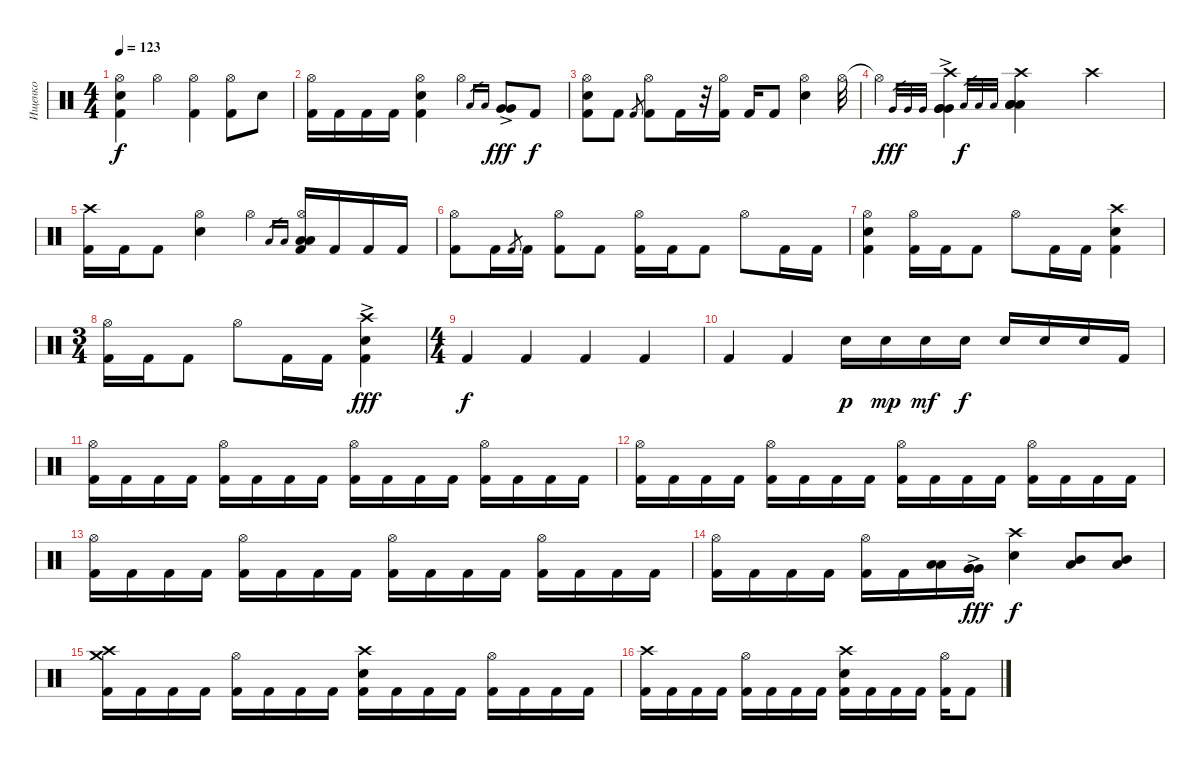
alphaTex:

\track ("Ищенко" "Ищенко") {instrument percussion}
\staff {score}
\articulation defaults
\ts (4 4)
\tempo 123
\clef neutral
\ks c
("Electric Snare (hit)" "Kick (hit) 2" "Hi-Hat (open)").4{dy f} "Hi-Hat (open)".4 ("Kick (hit) 2" "Hi-Hat (open)").4 ("Kick (hit) 2" "Hi-Hat (open)").8 "Electric Snare (hit)".8 |
("Hi-Hat (open)" "Kick (hit) 2").16 "Kick (hit) 2".16 "Kick (hit) 2".16 "Kick (hit) 2".16 ("Electric Snare (hit)" "Kick (hit) 2" "Hi-Hat (open)").4 "Hi-Hat (open)".4 "Low Tom (hit)".16{gr} "Low Tom (hit)".16{gr} ("Very Low Tom (hit)"{ac} "Very Low Tom (hit)"{ac}).8{dy fff} "Kick (hit) 2".8{dy f} |
("Hi-Hat (open)" "Electric Snare (hit)" "Kick (hit) 2").8 "Kick (hit) 2".8 "Kick (hit) 2".8{gr} ("Hi-Hat (open)" "Kick (hit) 2").8 "Kick (hit) 2".16 r.32 ("Hi-Hat (open)" "Kick (hit) 2").16 "Kick (hit) 2".16 "Kick (hit) 2".8 ("Electric Snare (hit)" "Hi-Hat (open)").4 "Hi-Hat (open)".32 |
"Hi-Hat (open)"{t}.4 "Very Low Tom (hit)".32{gr dy fff} "Very Low Tom (hit)".32{gr} "Very Low Tom (hit)".32{gr} ("Very Low Tom (hit)"{ac} "Very Low Tom (hit)"{ac} "Very Low Tom (hit)"{ac} "Crash high (hit)").4 "Low Floor Tom (hit)".32{gr dy f} "Low Floor Tom (hit)".32{gr} "Low Floor Tom (hit)".32{gr} ("Low Floor Tom (hit)" "Low Floor Tom (hit)" "Low Floor Tom (hit)" "Crash high (hit)").4 "Crash high (hit)".4 |
("Crash high (hit)" "Kick (hit) 2").16 "Kick (hit) 2".16 "Kick (hit) 2".8 ("Electric Snare (hit)" "Hi-Hat (open)").4 "Hi-Hat (open)".4 "Low Tom (hit)".16{gr} "Low Tom (hit)".16{gr} ("Low Tom (hit)" "Low Tom (hit)" "Hi-Hat (open)" "Kick (hit) 2").16 "Kick (hit) 2".16 "Kick (hit) 2".16 "Kick (hit) 2".16 |
("Hi-Hat (open)" "Kick (hit) 2").8 "Kick (hit) 2".16 "Kick (hit) 2".8{gr} "Kick (hit) 2".16 ("Hi-Hat (open)" "Kick (hit) 2").8 "Kick (hit) 2".8 ("Hi-Hat (open)" "Kick (hit) 2").16 "Kick (hit) 2".16 "Kick (hit) 2".8 "Hi-Hat (open)".8 "Kick (hit) 2".16 "Kick (hit) 2".16 |
("Hi-Hat (open)" "Electric Snare (hit)" "Kick (hit) 2").4 ("Hi-Hat (open)" "Kick (hit) 2").16 "Kick (hit) 2".16 "Kick (hit) 2".8 "Hi-Hat (open)".8 "Kick (hit) 2".16 "Kick (hit) 2".16 ("Crash high (hit)" "Kick (hit) 2" "Electric Snare (hit)").4 |
\ts (3 4)
("Hi-Hat (open)" "Kick (hit) 2").16 "Kick (hit) 2".16 "Kick (hit) 2".8 "Hi-Hat (open)".8 "Kick (hit) 2".16 "Kick (hit) 2".16 ("Crash high (hit)" "Electric Snare (hit)"{ac} "Kick (hit) 2").4{dy fff} |
\ts (4 4)
"Kick (hit) 2".4{dy f} "Kick (hit) 2".4 "Kick (hit) 2".4 "Kick (hit) 2".4 |
"Kick (hit) 2".4 "Kick (hit) 2".4 "Electric Snare (hit)".16{dy p} "Electric Snare (hit)".16{dy mp} "Electric Snare (hit)".16{dy mf} "Electric Snare (hit)".16{dy f} "Electric Snare (hit)".16 "Electric Snare (hit)".16 "Electric Snare (hit)".16 "Kick (hit) 2".16 |
("Kick (hit) 2" "Hi-Hat (open)").16 "Kick (hit) 2".16 "Kick (hit) 2".16 "Kick (hit) 2".16 ("Kick (hit) 2" "Hi-Hat (open)").16 "Kick (hit) 2".16 "Kick (hit) 2".16 "Kick (hit) 2".16 ("Kick (hit) 2" "Hi-Hat (open)").16 "Kick (hit) 2".16 "Kick (hit) 2".16 "Kick (hit) 2".16 ("Kick (hit) 2" "Hi-Hat (open)").16 "Kick (hit) 2".16 "Kick (hit) 2".16 "Kick (hit) 2".16 |
("Kick (hit) 2" "Hi-Hat (open)").16 "Kick (hit) 2".16 "Kick (hit) 2".16 "Kick (hit) 2".16 ("Kick (hit) 2" "Hi-Hat (open)").16 "Kick (hit) 2".16 "Kick (hit) 2".16 "Kick (hit) 2".16 ("Kick (hit) 2" "Hi-Hat (open)").16 "Kick (hit) 2".16 "Kick (hit) 2".16 "Kick (hit) 2".16 ("Kick (hit) 2" "Hi-Hat (open)").16 "Kick (hit) 2".16 "Kick (hit) 2".16 "Kick (hit) 2".16 |
("Kick (hit) 2" "Hi-Hat (open)").16 "Kick (hit) 2".16 "Kick (hit) 2".16 "Kick (hit) 2".16 ("Kick (hit) 2" "Hi-Hat (open)").16 "Kick (hit) 2".16 "Kick (hit) 2".16 "Kick (hit) 2".16 ("Kick (hit) 2" "Hi-Hat (open)").16 "Kick (hit) 2".16 "Kick (hit) 2".16 "Kick (hit) 2".16 ("Kick (hit) 2" "Hi-Hat (open)").16 "Kick (hit) 2".16 "Kick (hit) 2".16 "Kick (hit) 2".16 |
("Kick (hit) 2" "Hi-Hat (open)").16 "Kick (hit) 2".16 "Kick (hit) 2".16 "Kick (hit) 2".16 ("Kick (hit) 2" "Hi-Hat (open)").16 "Kick (hit) 2".16 ("Low Tom (hit)" "Low Tom (hit)").16 ("Very Low Tom (hit)"{ac} "Very Low Tom (hit)"{ac} "Very Low Tom (hit)").16{dy fff} ("Crash high (hit)" "Electric Snare (hit)").4{dy f} ("Low Tom (hit)" "Mid Tom (hit)").8 ("Mid Tom (hit)" "Low Tom (hit)").8 |
("Crash medium (hit)" "Kick (hit) 2" "Crash high (hit)").16 "Kick (hit) 2".16 "Kick (hit) 2".16 "Kick (hit) 2".16 ("Hi-Hat (open)" "Kick (hit) 2").16 "Kick (hit) 2".16 "Kick (hit) 2".16 "Kick (hit) 2".16 ("Crash high (hit)" "Kick (hit) 2" "Electric Snare (hit)").16 "Kick (hit) 2".16 "Kick (hit) 2".16 "Kick (hit) 2".16 ("Hi-Hat (open)" "Kick (hit) 2").16 "Kick (hit) 2".16 "Kick (hit) 2".16 "Kick (hit) 2".16 |
("Crash high (hit)" "Kick (hit) 2").16 "Kick (hit) 2".16 "Kick (hit) 2".16 "Kick (hit) 2".16 ("Hi-Hat (open)" "Kick (hit) 2").16 "Kick (hit) 2".16 "Kick (hit) 2".16 "Kick (hit) 2".16 ("Crash high (hit)" "Kick (hit) 2" "Electric Snare (hit)").16 "Kick (hit) 2".16 "Kick (hit) 2".16 "Kick (hit) 2".16 ("Hi-Hat (open)" "Kick (hit) 2").16 "Kick (hit) 2".8
